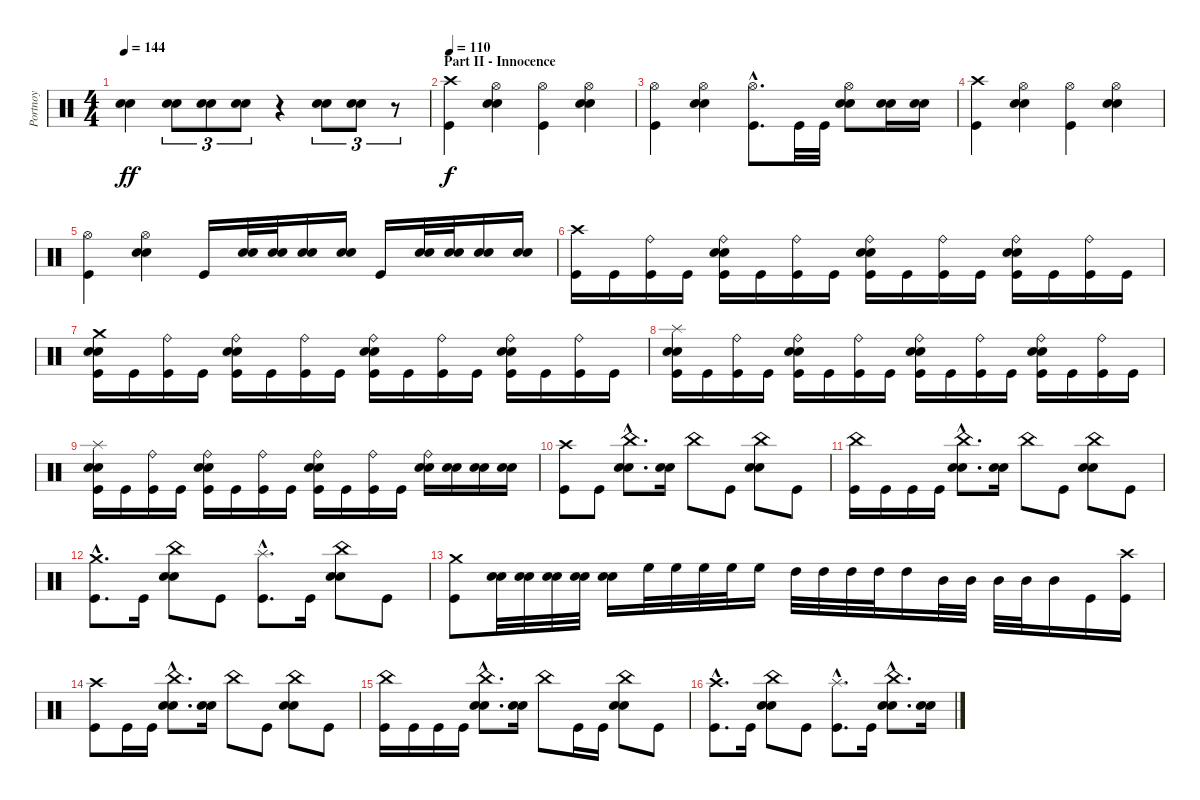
\track ("Portnoy" "Portnoy") {instrument percussion}
\staff {score}
\articulation defaults
\ts (4 4)
\tempo 144
\clef neutral
\ks c
("Snare (hit) 2" "Electric Snare (hit)").4{dy ff} ("Snare (hit) 2" "Electric Snare (hit)").8{tu (3 2)} ("Snare (hit) 2" "Electric Snare (hit)").8{tu (3 2)} ("Snare (hit) 2" "Electric Snare (hit)").8{tu (3 2)} r.4 ("Snare (hit) 2" "Electric Snare (hit)").8{tu (3 2)} ("Snare (hit) 2" "Electric Snare (hit)").8{tu (3 2)} r.8{tu (3 2)} |
\section ("" "Part II - Innocence")
\tempo 110
("Crash high (hit)" "Kick (hit)").4{dy f} ("Hi-Hat (open)" "Snare (hit) 2" "Electric Snare (hit)").4 ("Hi-Hat (open)" "Kick (hit)").4 ("Hi-Hat (open)" "Snare (hit) 2" "Electric Snare (hit)").4 |
("Hi-Hat (open)" "Kick (hit)").4 ("Hi-Hat (open)" "Snare (hit) 2" "Electric Snare (hit)").4 ("Hi-Hat (open)"{hac} "Kick (hit)"{hac}).8{d} "Kick (hit)".32 "Kick (hit)".32 ("Hi-Hat (open)" "Snare (hit) 2" "Electric Snare (hit)").8 ("Snare (hit) 2" "Electric Snare (hit)").16 ("Snare (hit) 2" "Electric Snare (hit)").16 |
("Crash high (hit)" "Kick (hit)").4 ("Hi-Hat (open)" "Snare (hit) 2" "Electric Snare (hit)").4 ("Hi-Hat (open)" "Kick (hit)").4 ("Hi-Hat (open)" "Snare (hit) 2" "Electric Snare (hit)").4 |
("Hi-Hat (open)" "Kick (hit)").4 ("Hi-Hat (open)" "Snare (hit) 2" "Electric Snare (hit)").4 "Kick (hit)".16 ("Snare (hit) 2" "Electric Snare (hit)").32 ("Snare (hit) 2" "Electric Snare (hit)").32 ("Snare (hit) 2" "Electric Snare (hit)").16 ("Snare (hit) 2" "Electric Snare (hit)").16 "Kick (hit)".16 ("Snare (hit) 2" "Electric Snare (hit)").32 ("Snare (hit) 2" "Electric Snare (hit)").32 ("Snare (hit) 2" "Electric Snare (hit)").16 ("Snare (hit) 2" "Electric Snare (hit)").16 |
("Crash high (hit)" "Kick (hit)").16 "Kick (hit)".16 ("Ride (bell)" "Kick (hit)").16 "Kick (hit)".16 ("Ride (bell)" "Snare (hit) 2" "Electric Snare (hit)" "Kick (hit)").16 "Kick (hit)".16 ("Ride (bell)" "Kick (hit)").16 "Kick (hit)".16 ("Ride (bell)" "Snare (hit) 2" "Electric Snare (hit)" "Kick (hit)").16 "Kick (hit)".16 ("Ride (bell)" "Kick (hit)").16 "Kick (hit)".16 ("Ride (bell)" "Snare (hit) 2" "Electric Snare (hit)" "Kick (hit)").16 "Kick (hit)".16 ("Ride (bell)" "Kick (hit)").16 "Kick (hit)".16 |
("Crash medium (hit)" "Snare (hit) 2" "Electric Snare (hit)" "Kick (hit)").16 "Kick (hit)".16 ("Ride (bell)" "Kick (hit)").16 "Kick (hit)".16 ("Ride (bell)" "Snare (hit) 2" "Electric Snare (hit)" "Kick (hit)").16 "Kick (hit)".16 ("Ride (bell)" "Kick (hit)").16 "Kick (hit)".16 ("Ride (bell)" "Snare (hit) 2" "Electric Snare (hit)" "Kick (hit)").16 "Kick (hit)".16 ("Ride (bell)" "Kick (hit)").16 "Kick (hit)".16 ("Ride (bell)" "Snare (hit) 2" "Electric Snare (hit)" "Kick (hit)").16 "Kick (hit)".16 ("Ride (bell)" "Kick (hit)").16 "Kick (hit)".16 |
("Splash (hit)" "Snare (hit) 2" "Electric Snare (hit)" "Kick (hit)").16 "Kick (hit)".16 ("Ride (bell)" "Kick (hit)").16 "Kick (hit)".16 ("Ride (bell)" "Snare (hit) 2" "Electric Snare (hit)" "Kick (hit)").16 "Kick (hit)".16 ("Ride (bell)" "Kick (hit)").16 "Kick (hit)".16 ("Ride (bell)" "Snare (hit) 2" "Electric Snare (hit)" "Kick (hit)").16 "Kick (hit)".16 ("Ride (bell)" "Kick (hit)").16 "Kick (hit)".16 ("Ride (bell)" "Snare (hit) 2" "Electric Snare (hit)" "Kick (hit)").16 "Kick (hit)".16 ("Ride (bell)" "Kick (hit)").16 "Kick (hit)".16 |
("Splash (hit)" "Snare (hit) 2" "Electric Snare (hit)" "Kick (hit)").16 "Kick (hit)".16 ("Ride (bell)" "Kick (hit)").16 "Kick (hit)".16 ("Ride (bell)" "Snare (hit) 2" "Electric Snare (hit)" "Kick (hit)").16 "Kick (hit)".16 ("Ride (bell)" "Kick (hit)").16 "Kick (hit)".16 ("Ride (bell)" "Snare (hit) 2" "Electric Snare (hit)" "Kick (hit)").16 "Kick (hit)".16 ("Ride (bell)" "Kick (hit)").16 "Kick (hit)".16 ("Ride (bell)" "Snare (hit) 2" "Electric Snare (hit)").16 ("Snare (hit) 2" "Electric Snare (hit)").16 ("Snare (hit) 2" "Electric Snare (hit)").16 ("Snare (hit) 2" "Electric Snare (hit)").16 |
("Crash high (hit)" "Kick (hit)").8 "Kick (hit)".8 ("China (hit)"{hac} "Snare (hit) 2"{hac} "Electric Snare (hit)"{hac}).8{d} ("Snare (hit) 2" "Electric Snare (hit)").16 "China (hit)".8 "Kick (hit)".8 ("China (hit)" "Snare (hit) 2" "Electric Snare (hit)").8 "Kick (hit)".8 |
("China (hit)" "Kick (hit)").16 "Kick (hit)".16 "Kick (hit)".16 "Kick (hit)".16 ("China (hit)"{hac} "Snare (hit) 2"{hac} "Electric Snare (hit)"{hac}).8{d} ("Snare (hit) 2" "Electric Snare (hit)").16 "China (hit)".8 "Kick (hit)".8 ("China (hit)" "Snare (hit) 2" "Electric Snare (hit)").8 "Kick (hit)".8 |
("Crash medium (hit)"{hac} "Kick (hit)"{hac}).8{d} "Kick (hit)".16 ("China (hit)" "Snare (hit) 2" "Electric Snare (hit)").8 "Kick (hit)".8 ("Splash (hit)"{hac} "Kick (hit)"{hac}).8{d} "Kick (hit)".16 ("China (hit)" "Snare (hit) 2" "Electric Snare (hit)").8 "Kick (hit)".8 |
("Crash medium (hit)" "Kick (hit)").8 ("Snare (hit) 2" "Electric Snare (hit)").32 ("Snare (hit) 2" "Electric Snare (hit)").32 ("Snare (hit) 2" "Electric Snare (hit)").32 ("Snare (hit) 2" "Electric Snare (hit)").32 ("Snare (hit) 2" "Electric Snare (hit)").16 "High Floor Tom (hit)".32 "High Floor Tom (hit)".32 "High Floor Tom (hit)".32 "High Floor Tom (hit)".32 "High Floor Tom (hit)".16 "High Tom (hit)".32 "High Tom (hit)".32 "High Tom (hit)".32 "High Tom (hit)".32 "High Tom (hit)".16 "Mid Tom (hit)".32 "Mid Tom (hit)".32 "Mid Tom (hit)".32 "Mid Tom (hit)".32 "Mid Tom (hit)".16 "Kick (hit)".16 ("Crash high (hit)" "Kick (hit)").16 |
("Crash high (hit)" "Kick (hit)").8 "Kick (hit)".16 "Kick (hit)".16 ("China (hit)"{hac} "Snare (hit) 2"{hac} "Electric Snare (hit)"{hac}).8{d} ("Snare (hit) 2" "Electric Snare (hit)").16 "China (hit)".8 "Kick (hit)".8 ("China (hit)" "Snare (hit) 2" "Electric Snare (hit)").8 "Kick (hit)".8 |
("China (hit)" "Kick (hit)").16 "Kick (hit)".16 "Kick (hit)".16 "Kick (hit)".16 ("China (hit)"{hac} "Snare (hit) 2"{hac} "Electric Snare (hit)"{hac}).8{d} ("Snare (hit) 2" "Electric Snare (hit)").16 "China (hit)".8 "Kick (hit)".16 "Kick (hit)".16 ("China (hit)" "Snare (hit) 2" "Electric Snare (hit)").8 "Kick (hit)".8 |
("Crash high (hit)"{hac} "Kick (hit)"{hac}).8{d} "Kick (hit)".16 ("China (hit)" "Snare (hit) 2" "Electric Snare (hit)").8 "Kick (hit)".8 ("Splash (hit)"{hac} "Kick (hit)"{hac}).8{d} "Kick (hit)".16 ("China (hit)"{hac} "Snare (hit) 2"{hac} "Electric Snare (hit)"{hac}).8{d} ("Snare (hit) 2" "Electric Snare (hit)").16
